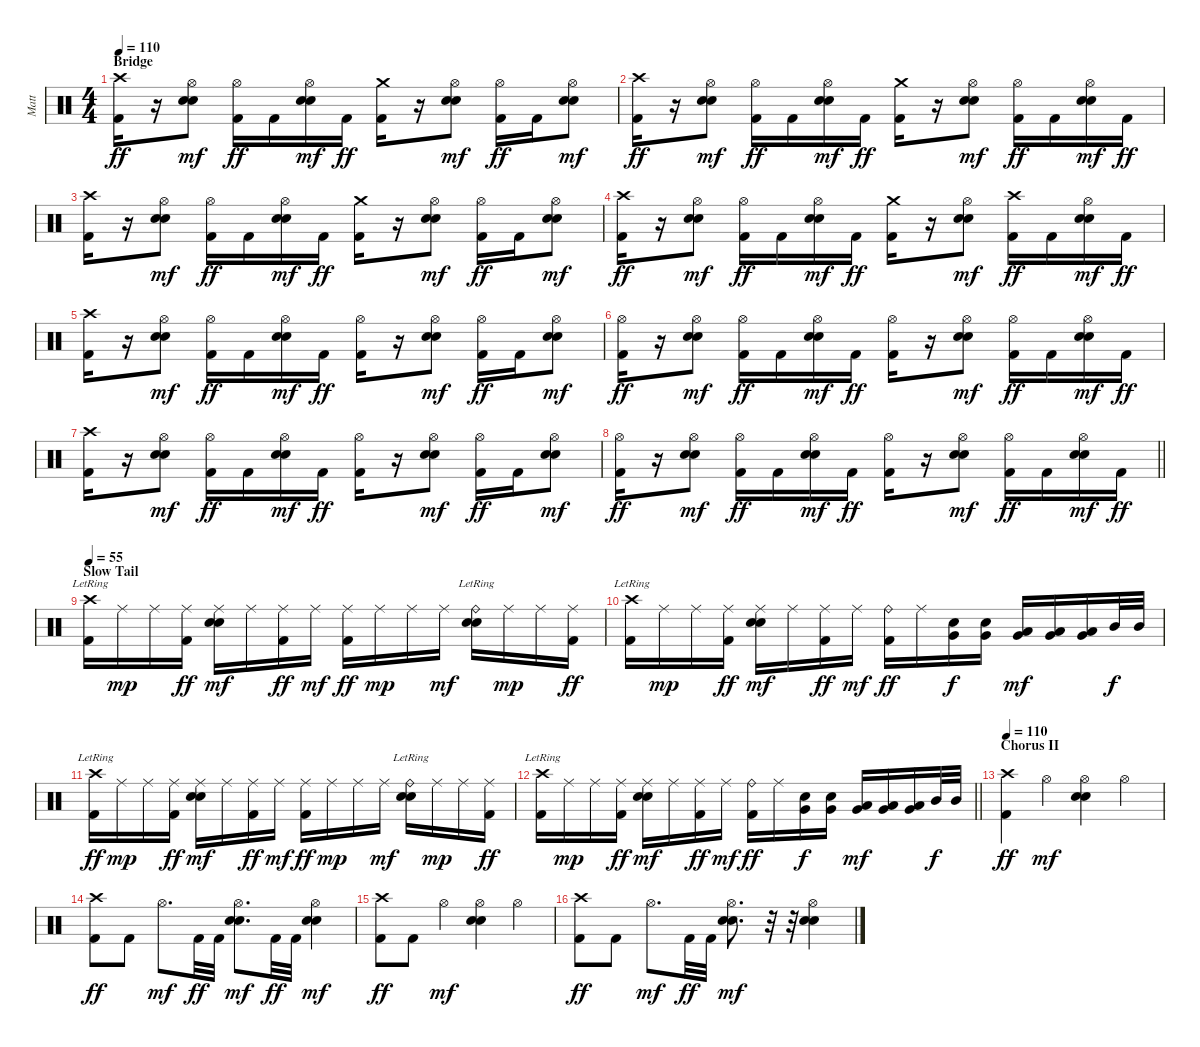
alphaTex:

\track ("Matt" "Matt") {instrument percussion}
\staff {score}
\articulation defaults
\ts (4 4)
\section ("" "Bridge")
\tempo 110
\clef neutral
\ks c
("Crash high (hit)" "Kick (hit) 2").16{dy ff} r.16 ("Hi-Hat (open)" "Electric Snare (hit)" "Snare (hit) 2").8{dy mf} ("Hi-Hat (open)" "Kick (hit) 2").16{dy ff} "Kick (hit) 2".16 ("Hi-Hat (open)" "Electric Snare (hit)" "Snare (hit) 2").16{dy mf} "Kick (hit) 2".16{dy ff} ("Crash medium (hit)" "Kick (hit) 2").16 r.16 ("Hi-Hat (open)" "Electric Snare (hit)" "Snare (hit) 2").8{dy mf} ("Hi-Hat (open)" "Kick (hit) 2").16{dy ff} "Kick (hit) 2".16 ("Hi-Hat (open)" "Electric Snare (hit)" "Snare (hit) 2").8{dy mf} |
("Crash high (hit)" "Kick (hit) 2").16{dy ff} r.16 ("Hi-Hat (open)" "Electric Snare (hit)" "Snare (hit) 2").8{dy mf} ("Hi-Hat (open)" "Kick (hit) 2").16{dy ff} "Kick (hit) 2".16 ("Hi-Hat (open)" "Electric Snare (hit)" "Snare (hit) 2").16{dy mf} "Kick (hit) 2".16{dy ff} ("Crash medium (hit)" "Kick (hit) 2").16 r.16 ("Hi-Hat (open)" "Electric Snare (hit)" "Snare (hit) 2").8{dy mf} ("Hi-Hat (open)" "Kick (hit) 2").16{dy ff} "Kick (hit) 2".16 ("Hi-Hat (open)" "Electric Snare (hit)" "Snare (hit) 2").16{dy mf} "Kick (hit) 2".16{dy ff} |
("Crash high (hit)" "Kick (hit) 2").16 r.16 ("Hi-Hat (open)" "Electric Snare (hit)" "Snare (hit) 2").8{dy mf} ("Hi-Hat (open)" "Kick (hit) 2").16{dy ff} "Kick (hit) 2".16 ("Hi-Hat (open)" "Electric Snare (hit)" "Snare (hit) 2").16{dy mf} "Kick (hit) 2".16{dy ff} ("Crash medium (hit)" "Kick (hit) 2").16 r.16 ("Hi-Hat (open)" "Electric Snare (hit)" "Snare (hit) 2").8{dy mf} ("Hi-Hat (open)" "Kick (hit) 2").16{dy ff} "Kick (hit) 2".16 ("Hi-Hat (open)" "Electric Snare (hit)" "Snare (hit) 2").8{dy mf} |
("Crash high (hit)" "Kick (hit) 2").16{dy ff} r.16 ("Hi-Hat (open)" "Electric Snare (hit)" "Snare (hit) 2").8{dy mf} ("Hi-Hat (open)" "Kick (hit) 2").16{dy ff} "Kick (hit) 2".16 ("Hi-Hat (open)" "Electric Snare (hit)" "Snare (hit) 2").16{dy mf} "Kick (hit) 2".16{dy ff} ("Crash medium (hit)" "Kick (hit) 2").16 r.16 ("Hi-Hat (open)" "Electric Snare (hit)" "Snare (hit) 2").8{dy mf} ("Crash high (hit)" "Kick (hit) 2").16{dy ff} "Kick (hit) 2".16 ("Hi-Hat (open)" "Electric Snare (hit)" "Snare (hit) 2").16{dy mf} "Kick (hit) 2".16{dy ff} |
("Crash high (hit)" "Kick (hit) 2").16 r.16 ("Hi-Hat (open)" "Electric Snare (hit)" "Snare (hit) 2").8{dy mf} ("Hi-Hat (open)" "Kick (hit) 2").16{dy ff} "Kick (hit) 2".16 ("Hi-Hat (open)" "Electric Snare (hit)" "Snare (hit) 2").16{dy mf} "Kick (hit) 2".16{dy ff} ("Hi-Hat (open)" "Kick (hit) 2").16 r.16 ("Hi-Hat (open)" "Electric Snare (hit)" "Snare (hit) 2").8{dy mf} ("Hi-Hat (open)" "Kick (hit) 2").16{dy ff} "Kick (hit) 2".16 ("Hi-Hat (open)" "Electric Snare (hit)" "Snare (hit) 2").8{dy mf} |
("Hi-Hat (open)" "Kick (hit) 2").16{dy ff} r.16 ("Hi-Hat (open)" "Electric Snare (hit)" "Snare (hit) 2").8{dy mf} ("Hi-Hat (open)" "Kick (hit) 2").16{dy ff} "Kick (hit) 2".16 ("Hi-Hat (open)" "Electric Snare (hit)" "Snare (hit) 2").16{dy mf} "Kick (hit) 2".16{dy ff} ("Hi-Hat (open)" "Kick (hit) 2").16 r.16 ("Hi-Hat (open)" "Electric Snare (hit)" "Snare (hit) 2").8{dy mf} ("Hi-Hat (open)" "Kick (hit) 2").16{dy ff} "Kick (hit) 2".16 ("Hi-Hat (open)" "Electric Snare (hit)" "Snare (hit) 2").16{dy mf} "Kick (hit) 2".16{dy ff} |
("Crash high (hit)" "Kick (hit) 2").16 r.16 ("Hi-Hat (open)" "Electric Snare (hit)" "Snare (hit) 2").8{dy mf} ("Hi-Hat (open)" "Kick (hit) 2").16{dy ff} "Kick (hit) 2".16 ("Hi-Hat (open)" "Electric Snare (hit)" "Snare (hit) 2").16{dy mf} "Kick (hit) 2".16{dy ff} ("Hi-Hat (open)" "Kick (hit) 2").16 r.16 ("Hi-Hat (open)" "Electric Snare (hit)" "Snare (hit) 2").8{dy mf} ("Hi-Hat (open)" "Kick (hit) 2").16{dy ff} "Kick (hit) 2".16 ("Hi-Hat (open)" "Electric Snare (hit)" "Snare (hit) 2").8{dy mf} |
\barLineRight lightlight
("Hi-Hat (open)" "Kick (hit) 2").16{dy ff} r.16 ("Hi-Hat (open)" "Electric Snare (hit)" "Snare (hit) 2").8{dy mf} ("Hi-Hat (open)" "Kick (hit) 2").16{dy ff} "Kick (hit) 2".16 ("Hi-Hat (open)" "Electric Snare (hit)" "Snare (hit) 2").16{dy mf} "Kick (hit) 2".16{dy ff} ("Hi-Hat (open)" "Kick (hit) 2").16 r.16 ("Hi-Hat (open)" "Electric Snare (hit)" "Snare (hit) 2").8{dy mf} ("Hi-Hat (open)" "Kick (hit) 2").16{dy ff} "Kick (hit) 2".16 ("Hi-Hat (open)" "Electric Snare (hit)" "Snare (hit) 2").16{dy mf} "Kick (hit) 2".16{dy ff} |
\section ("" "Slow Tail")
\tempo 55
("Crash high (hit)"{lr} "Kick (hit) 2").16 "Ride (middle)".16{dy mp} "Ride (middle)".16 ("Ride (middle)" "Kick (hit) 2").16{dy ff} ("Ride (middle)" "Electric Snare (hit)" "Snare (hit) 2").16{dy mf} "Ride (middle)".16 ("Ride (middle)" "Kick (hit) 2").16{dy ff} "Ride (middle)".16{dy mf} ("Ride (middle)" "Kick (hit) 2").16{dy ff} "Ride (middle)".16{dy mp} "Ride (middle)".16 "Ride (middle)".16{dy mf} ("Ride (bell)"{lr} "Electric Snare (hit)" "Snare (hit) 2").16 "Ride (middle)".16{dy mp} "Ride (middle)".16 ("Ride (middle)" "Kick (hit) 2").16{dy ff} |
("Crash high (hit)"{lr} "Kick (hit) 2").16 "Ride (middle)".16{dy mp} "Ride (middle)".16 ("Ride (middle)" "Kick (hit) 2").16{dy ff} ("Ride (middle)" "Electric Snare (hit)" "Snare (hit) 2").16{dy mf} "Ride (middle)".16 ("Ride (middle)" "Kick (hit) 2").16{dy ff} "Ride (middle)".16{dy mf} ("Ride (bell)" "Kick (hit) 2").16{dy ff} "Ride (middle)".16 ("Very Low Tom (hit)" "Snare (hit) 2").16{dy f} ("Very Low Tom (hit)" "Snare (hit) 2").16 ("Low Floor Tom (hit)" "Very Low Tom (hit)").16{dy mf} ("Low Floor Tom (hit)" "Very Low Tom (hit)").16 ("Low Floor Tom (hit)" "Very Low Tom (hit)").16 "Mid Tom (hit)".32{dy f} "Mid Tom (hit)".32 |
("Crash high (hit)"{lr} "Kick (hit) 2").16{dy ff} "Ride (middle)".16{dy mp} "Ride (middle)".16 ("Ride (middle)" "Kick (hit) 2").16{dy ff} ("Ride (middle)" "Electric Snare (hit)" "Snare (hit) 2").16{dy mf} "Ride (middle)".16 ("Ride (middle)" "Kick (hit) 2").16{dy ff} "Ride (middle)".16{dy mf} ("Ride (middle)" "Kick (hit) 2").16{dy ff} "Ride (middle)".16{dy mp} "Ride (middle)".16 "Ride (middle)".16{dy mf} ("Ride (bell)"{lr} "Electric Snare (hit)" "Snare (hit) 2").16 "Ride (middle)".16{dy mp} "Ride (middle)".16 ("Ride (middle)" "Kick (hit) 2").16{dy ff} |
\barLineRight lightlight
("Crash high (hit)"{lr} "Kick (hit) 2").16 "Ride (middle)".16{dy mp} "Ride (middle)".16 ("Ride (middle)" "Kick (hit) 2").16{dy ff} ("Ride (middle)" "Electric Snare (hit)" "Snare (hit) 2").16{dy mf} "Ride (middle)".16 ("Ride (middle)" "Kick (hit) 2").16{dy ff} "Ride (middle)".16{dy mf} ("Ride (bell)" "Kick (hit) 2").16{dy ff} "Ride (middle)".16 ("Very Low Tom (hit)" "Snare (hit) 2").16{dy f} ("Very Low Tom (hit)" "Snare (hit) 2").16 ("Low Floor Tom (hit)" "Very Low Tom (hit)").16{dy mf} ("Low Floor Tom (hit)" "Very Low Tom (hit)").16 ("Low Floor Tom (hit)" "Very Low Tom (hit)").16 "Mid Tom (hit)".32{dy f} "Mid Tom (hit)".32 |
\section ("" "Chorus II")
\tempo 110
("Crash high (hit)" "Kick (hit) 2").4{dy ff} "Hi-Hat (open)".4{dy mf} ("Hi-Hat (open)" "Electric Snare (hit)" "Snare (hit) 2").4 "Hi-Hat (open)".4 |
("Crash high (hit)" "Kick (hit) 2").8{dy ff} "Kick (hit) 2".8 "Hi-Hat (open)".8{d dy mf} "Kick (hit) 2".32{dy ff} "Kick (hit) 2".32 ("Hi-Hat (open)" "Electric Snare (hit)" "Snare (hit) 2").8{d dy mf} "Kick (hit) 2".32{dy ff} "Kick (hit) 2".32 ("Hi-Hat (open)" "Electric Snare (hit)" "Snare (hit) 2").4{dy mf} |
("Crash high (hit)" "Kick (hit) 2").8{dy ff} "Kick (hit) 2".8 "Hi-Hat (open)".4{dy mf} ("Hi-Hat (open)" "Electric Snare (hit)" "Snare (hit) 2").4 "Hi-Hat (open)".4 |
("Crash high (hit)" "Kick (hit) 2").8{dy ff} "Kick (hit) 2".8 "Hi-Hat (open)".8{d dy mf} "Kick (hit) 2".32{dy ff} "Kick (hit) 2".32 ("Hi-Hat (open)" "Electric Snare (hit)" "Snare (hit) 2").8{d dy mf} r.32 r.32 ("Hi-Hat (open)" "Electric Snare (hit)" "Snare (hit) 2").4
